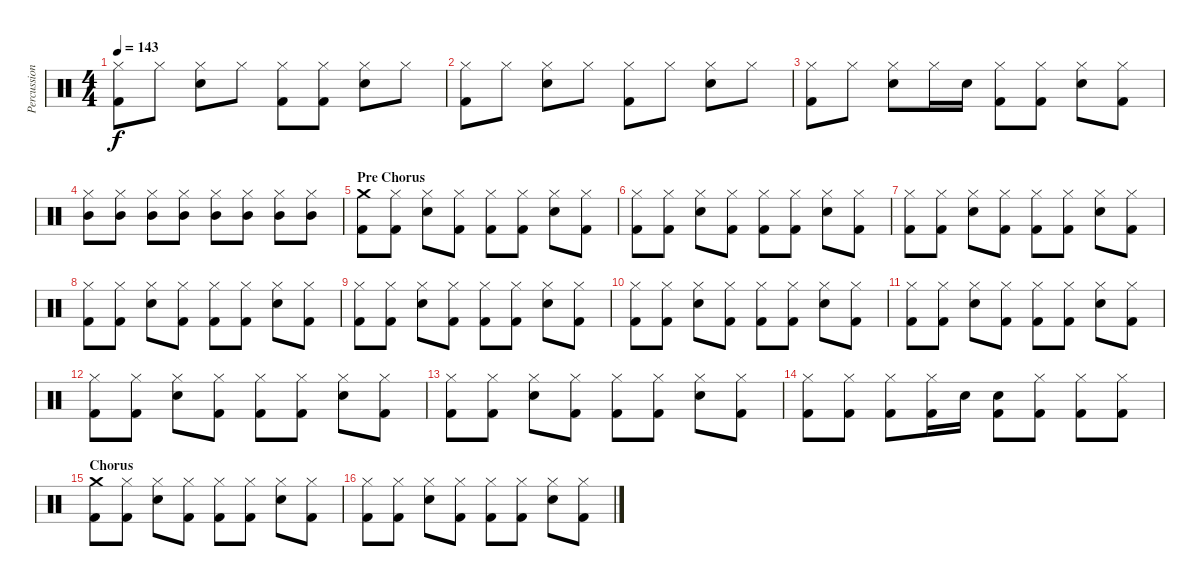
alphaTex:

\track ("Percussion" "Percussion") {instrument percussion}
\staff {score}
\articulation defaults
\ts (4 4)
\tempo 143
\clef neutral
\ks c
("Hi-Hat (closed)" "Kick (hit) 2").8{dy f} "Hi-Hat (closed)".8 ("Hi-Hat (closed)" "Electric Snare (hit)").8 "Hi-Hat (closed)".8 ("Hi-Hat (closed)" "Kick (hit) 2").8 ("Hi-Hat (closed)" "Kick (hit) 2").8 ("Hi-Hat (closed)" "Electric Snare (hit)").8 "Hi-Hat (closed)".8 |
("Hi-Hat (closed)" "Kick (hit) 2").8 "Hi-Hat (closed)".8 ("Hi-Hat (closed)" "Electric Snare (hit)").8 "Hi-Hat (closed)".8 ("Hi-Hat (closed)" "Kick (hit) 2").8 "Hi-Hat (closed)".8 ("Hi-Hat (closed)" "Electric Snare (hit)").8 "Hi-Hat (closed)".8 |
("Hi-Hat (closed)" "Kick (hit) 2").8 "Hi-Hat (closed)".8 ("Hi-Hat (closed)" "Electric Snare (hit)").8 "Hi-Hat (closed)".16 "Electric Snare (hit)".16 ("Hi-Hat (closed)" "Kick (hit) 2").8 ("Hi-Hat (closed)" "Kick (hit) 2").8 ("Hi-Hat (closed)" "Electric Snare (hit)").8 ("Hi-Hat (closed)" "Kick (hit) 2").8 |
("Hi-Hat (closed)" "Mid Tom (hit)").8 ("Hi-Hat (closed)" "Mid Tom (hit)").8 ("Hi-Hat (closed)" "Mid Tom (hit)").8 ("Hi-Hat (closed)" "Mid Tom (hit)").8 ("Hi-Hat (closed)" "Mid Tom (hit)").8 ("Hi-Hat (closed)" "Mid Tom (hit)").8 ("Hi-Hat (closed)" "Mid Tom (hit)").8 ("Hi-Hat (closed)" "Mid Tom (hit)").8 |
\section ("" "Pre Chorus")
("Crash medium (hit)" "Kick (hit) 2").8 ("Hi-Hat (closed)" "Kick (hit) 2").8 ("Hi-Hat (closed)" "Electric Snare (hit)").8 ("Hi-Hat (closed)" "Kick (hit) 2").8 ("Hi-Hat (closed)" "Kick (hit) 2").8 ("Hi-Hat (closed)" "Kick (hit) 2").8 ("Hi-Hat (closed)" "Electric Snare (hit)").8 ("Hi-Hat (closed)" "Kick (hit) 2").8 |
("Hi-Hat (closed)" "Kick (hit) 2").8 ("Hi-Hat (closed)" "Kick (hit) 2").8 ("Hi-Hat (closed)" "Electric Snare (hit)").8 ("Hi-Hat (closed)" "Kick (hit) 2").8 ("Hi-Hat (closed)" "Kick (hit) 2").8 ("Hi-Hat (closed)" "Kick (hit) 2").8 ("Hi-Hat (closed)" "Electric Snare (hit)").8 ("Hi-Hat (closed)" "Kick (hit) 2").8 |
("Hi-Hat (closed)" "Kick (hit) 2").8 ("Hi-Hat (closed)" "Kick (hit) 2").8 ("Hi-Hat (closed)" "Electric Snare (hit)").8 ("Hi-Hat (closed)" "Kick (hit) 2").8 ("Hi-Hat (closed)" "Kick (hit) 2").8 ("Hi-Hat (closed)" "Kick (hit) 2").8 ("Hi-Hat (closed)" "Electric Snare (hit)").8 ("Hi-Hat (closed)" "Kick (hit) 2").8 |
("Hi-Hat (closed)" "Kick (hit) 2").8 ("Hi-Hat (closed)" "Kick (hit) 2").8 ("Hi-Hat (closed)" "Electric Snare (hit)").8 ("Hi-Hat (closed)" "Kick (hit) 2").8 ("Hi-Hat (closed)" "Kick (hit) 2").8 ("Hi-Hat (closed)" "Kick (hit) 2").8 ("Hi-Hat (closed)" "Electric Snare (hit)").8 ("Hi-Hat (closed)" "Kick (hit) 2").8 |
("Hi-Hat (closed)" "Kick (hit) 2").8 ("Hi-Hat (closed)" "Kick (hit) 2").8 ("Hi-Hat (closed)" "Electric Snare (hit)").8 ("Hi-Hat (closed)" "Kick (hit) 2").8 ("Hi-Hat (closed)" "Kick (hit) 2").8 ("Hi-Hat (closed)" "Kick (hit) 2").8 ("Hi-Hat (closed)" "Electric Snare (hit)").8 ("Hi-Hat (closed)" "Kick (hit) 2").8 |
("Hi-Hat (closed)" "Kick (hit) 2").8 ("Hi-Hat (closed)" "Kick (hit) 2").8 ("Hi-Hat (closed)" "Electric Snare (hit)").8 ("Hi-Hat (closed)" "Kick (hit) 2").8 ("Hi-Hat (closed)" "Kick (hit) 2").8 ("Hi-Hat (closed)" "Kick (hit) 2").8 ("Hi-Hat (closed)" "Electric Snare (hit)").8 ("Hi-Hat (closed)" "Kick (hit) 2").8 |
("Hi-Hat (closed)" "Kick (hit) 2").8 ("Hi-Hat (closed)" "Kick (hit) 2").8 ("Hi-Hat (closed)" "Electric Snare (hit)").8 ("Hi-Hat (closed)" "Kick (hit) 2").8 ("Hi-Hat (closed)" "Kick (hit) 2").8 ("Hi-Hat (closed)" "Kick (hit) 2").8 ("Hi-Hat (closed)" "Electric Snare (hit)").8 ("Hi-Hat (closed)" "Kick (hit) 2").8 |
("Hi-Hat (closed)" "Kick (hit) 2").8 ("Hi-Hat (closed)" "Kick (hit) 2").8 ("Hi-Hat (closed)" "Electric Snare (hit)").8 ("Hi-Hat (closed)" "Kick (hit) 2").8 ("Hi-Hat (closed)" "Kick (hit) 2").8 ("Hi-Hat (closed)" "Kick (hit) 2").8 ("Hi-Hat (closed)" "Electric Snare (hit)").8 ("Hi-Hat (closed)" "Kick (hit) 2").8 |
("Hi-Hat (closed)" "Kick (hit) 2").8 ("Hi-Hat (closed)" "Kick (hit) 2").8 ("Hi-Hat (closed)" "Electric Snare (hit)").8 ("Hi-Hat (closed)" "Kick (hit) 2").8 ("Hi-Hat (closed)" "Kick (hit) 2").8 ("Hi-Hat (closed)" "Kick (hit) 2").8 ("Hi-Hat (closed)" "Electric Snare (hit)").8 ("Hi-Hat (closed)" "Kick (hit) 2").8 |
("Hi-Hat (closed)" "Kick (hit) 2").8 ("Hi-Hat (closed)" "Kick (hit) 2").8 ("Hi-Hat (closed)" "Kick (hit) 2").8 ("Hi-Hat (closed)" "Kick (hit) 2").16 "Electric Snare (hit)".16 ("Electric Snare (hit)" "Kick (hit) 2").8 ("Hi-Hat (closed)" "Kick (hit) 2").8 ("Hi-Hat (closed)" "Kick (hit) 2").8 ("Hi-Hat (closed)" "Kick (hit) 2").8 |
\section ("" "Chorus")
("Crash medium (hit)" "Kick (hit) 2").8 ("Hi-Hat (closed)" "Kick (hit) 2").8 ("Hi-Hat (closed)" "Electric Snare (hit)").8 ("Hi-Hat (closed)" "Kick (hit) 2").8 ("Hi-Hat (closed)" "Kick (hit) 2").8 ("Hi-Hat (closed)" "Kick (hit) 2").8 ("Hi-Hat (closed)" "Electric Snare (hit)").8 ("Hi-Hat (closed)" "Kick (hit) 2").8 |
("Hi-Hat (closed)" "Kick (hit) 2").8 ("Hi-Hat (closed)" "Kick (hit) 2").8 ("Hi-Hat (closed)" "Electric Snare (hit)").8 ("Hi-Hat (closed)" "Kick (hit) 2").8 ("Hi-Hat (closed)" "Kick (hit) 2").8 ("Hi-Hat (closed)" "Kick (hit) 2").8 ("Hi-Hat (closed)" "Electric Snare (hit)").8 ("Hi-Hat (closed)" "Kick (hit) 2").8
